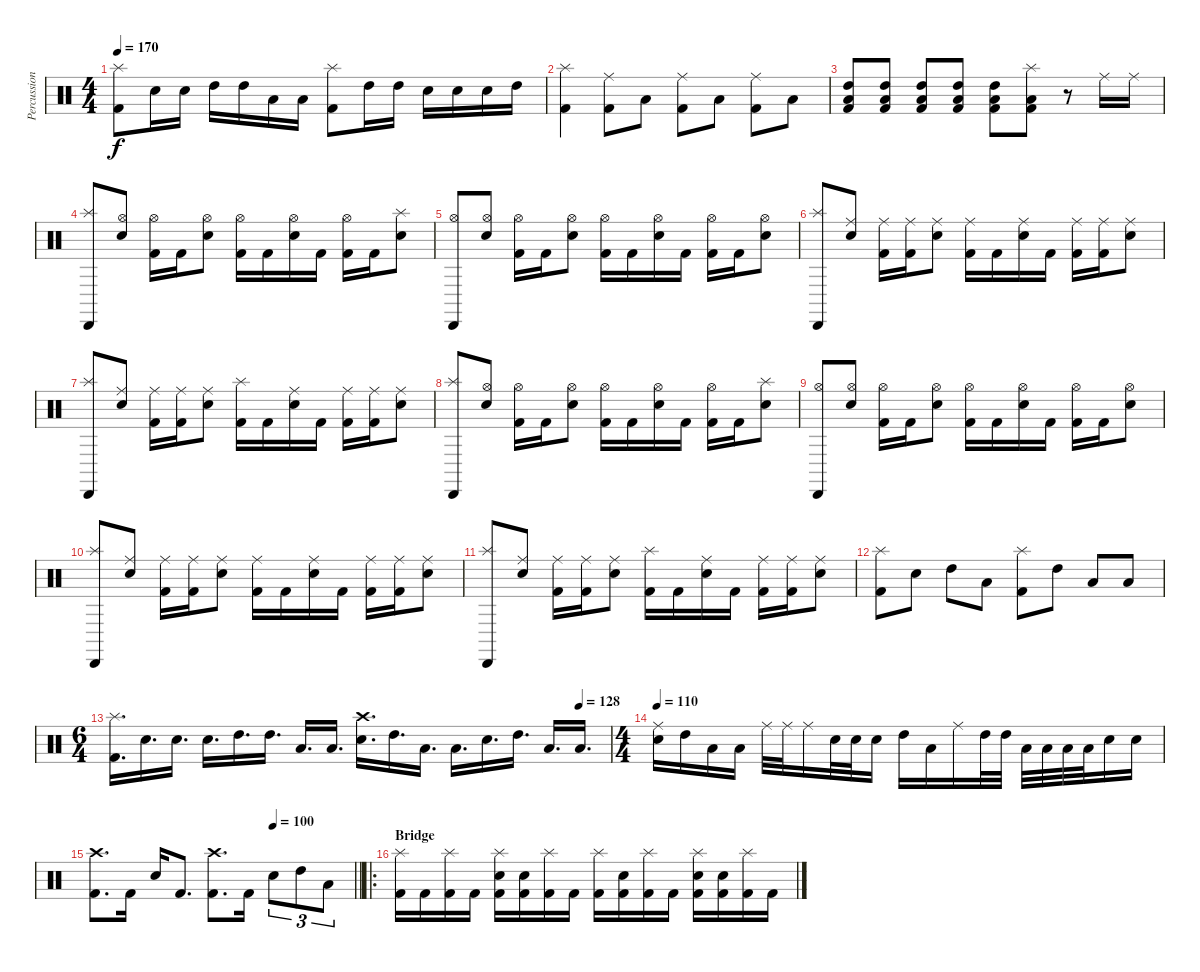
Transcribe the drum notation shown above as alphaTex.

\track ("Percussion" "Percussion") {instrument percussion}
\staff {score}
\articulation defaults
\ts (4 4)
\tempo 170
\clef neutral
\ks c
("Splash (hit)" "Kick (hit) 2").8{dy f} "Electric Snare (hit)".16 "Electric Snare (hit)".16 "High Tom (hit)".16 "High Tom (hit)".16 "Low Tom (hit)".16 "Low Floor Tom (hit)".16 ("Splash (hit)" "Kick (hit) 2").8 "High Tom (hit)".16 "High Tom (hit)".16 "Electric Snare (hit)".16 "Electric Snare (hit)".16 "Electric Snare (hit)".16 "High Tom (hit)".16 |
("Splash (hit)" "Kick (hit) 2").4 ("Ride (middle)" "Kick (hit) 2").8 "Low Floor Tom (hit)".8 ("Ride (middle)" "Kick (hit) 2").8 "Low Floor Tom (hit)".8 ("Ride (middle)" "Kick (hit) 2").8 "Low Floor Tom (hit)".8 |
("High Tom (hit)" "Low Floor Tom (hit)" "Kick (hit) 2").8 ("High Tom (hit)" "Low Floor Tom (hit)" "Kick (hit) 2").8 ("High Tom (hit)" "Low Floor Tom (hit)" "Kick (hit) 2").8 ("High Tom (hit)" "Low Floor Tom (hit)" "Kick (hit) 2").8 ("High Tom (hit)" "Low Floor Tom (hit)" "Kick (hit) 2").8 ("Splash (hit)" "Low Floor Tom (hit)" "Kick (hit) 2").8 r.8 "Ride (middle)".16 "Ride (middle)".16 |
("Splash (hit)" "Cabasa (hit)").8 ("Hi-Hat (open)" "Electric Snare (hit)").8 ("Hi-Hat (open)" "Kick (hit) 2").16 "Kick (hit) 2".16 ("Hi-Hat (open)" "Electric Snare (hit)").8 ("Hi-Hat (open)" "Kick (hit) 2").16 "Kick (hit) 2".16 ("Hi-Hat (open)" "Electric Snare (hit)").16 "Kick (hit) 2".16 ("Hi-Hat (open)" "Kick (hit) 2").16 "Kick (hit) 2".16 ("Splash (hit)" "Electric Snare (hit)").8 |
("Hi-Hat (open)" "Cabasa (hit)").8 ("Hi-Hat (open)" "Electric Snare (hit)").8 ("Hi-Hat (open)" "Kick (hit) 2").16 "Kick (hit) 2".16 ("Hi-Hat (open)" "Electric Snare (hit)").8 ("Hi-Hat (open)" "Kick (hit) 2").16 "Kick (hit) 2".16 ("Hi-Hat (open)" "Electric Snare (hit)").16 "Kick (hit) 2".16 ("Hi-Hat (open)" "Kick (hit) 2").16 "Kick (hit) 2".16 ("Hi-Hat (open)" "Electric Snare (hit)").8 |
("Splash (hit)" "Cabasa (hit)").8 ("Ride (middle)" "Electric Snare (hit)").8 ("Ride (middle)" "Kick (hit) 2").16 ("Ride (middle)" "Kick (hit) 2").16 ("Ride (middle)" "Electric Snare (hit)").8 ("Ride (middle)" "Kick (hit) 2").16 "Kick (hit) 2".16 ("Ride (middle)" "Electric Snare (hit)").16 "Kick (hit) 2".16 ("Ride (middle)" "Kick (hit) 2").16 ("Ride (middle)" "Kick (hit) 2").16 ("Ride (middle)" "Electric Snare (hit)").8 |
("Splash (hit)" "Cabasa (hit)").8 ("Ride (middle)" "Electric Snare (hit)").8 ("Ride (middle)" "Kick (hit) 2").16 ("Ride (middle)" "Kick (hit) 2").16 ("Ride (middle)" "Electric Snare (hit)").8 ("Splash (hit)" "Kick (hit) 2").16 "Kick (hit) 2".16 ("Ride (middle)" "Electric Snare (hit)").16 "Kick (hit) 2".16 ("Ride (middle)" "Kick (hit) 2").16 ("Ride (middle)" "Kick (hit) 2").16 ("Ride (middle)" "Electric Snare (hit)").8 |
("Splash (hit)" "Cabasa (hit)").8 ("Hi-Hat (open)" "Electric Snare (hit)").8 ("Hi-Hat (open)" "Kick (hit) 2").16 "Kick (hit) 2".16 ("Hi-Hat (open)" "Electric Snare (hit)").8 ("Hi-Hat (open)" "Kick (hit) 2").16 "Kick (hit) 2".16 ("Hi-Hat (open)" "Electric Snare (hit)").16 "Kick (hit) 2".16 ("Hi-Hat (open)" "Kick (hit) 2").16 "Kick (hit) 2".16 ("Splash (hit)" "Electric Snare (hit)").8 |
("Hi-Hat (open)" "Cabasa (hit)").8 ("Hi-Hat (open)" "Electric Snare (hit)").8 ("Hi-Hat (open)" "Kick (hit) 2").16 "Kick (hit) 2".16 ("Hi-Hat (open)" "Electric Snare (hit)").8 ("Hi-Hat (open)" "Kick (hit) 2").16 "Kick (hit) 2".16 ("Hi-Hat (open)" "Electric Snare (hit)").16 "Kick (hit) 2".16 ("Hi-Hat (open)" "Kick (hit) 2").16 "Kick (hit) 2".16 ("Hi-Hat (open)" "Electric Snare (hit)").8 |
("Splash (hit)" "Cabasa (hit)").8 ("Ride (middle)" "Electric Snare (hit)").8 ("Ride (middle)" "Kick (hit) 2").16 ("Ride (middle)" "Kick (hit) 2").16 ("Ride (middle)" "Electric Snare (hit)").8 ("Ride (middle)" "Kick (hit) 2").16 "Kick (hit) 2".16 ("Ride (middle)" "Electric Snare (hit)").16 "Kick (hit) 2".16 ("Ride (middle)" "Kick (hit) 2").16 ("Ride (middle)" "Kick (hit) 2").16 ("Ride (middle)" "Electric Snare (hit)").8 |
("Splash (hit)" "Cabasa (hit)").8 ("Ride (middle)" "Electric Snare (hit)").8 ("Ride (middle)" "Kick (hit) 2").16 ("Ride (middle)" "Kick (hit) 2").16 ("Ride (middle)" "Electric Snare (hit)").8 ("Splash (hit)" "Kick (hit) 2").16 "Kick (hit) 2".16 ("Ride (middle)" "Electric Snare (hit)").16 "Kick (hit) 2".16 ("Ride (middle)" "Kick (hit) 2").16 ("Ride (middle)" "Kick (hit) 2").16 ("Ride (middle)" "Electric Snare (hit)").8 |
("Splash (hit)" "Kick (hit) 2").8 "Electric Snare (hit)".8 "High Tom (hit)".8 "Low Tom (hit)".8 ("Splash (hit)" "Kick (hit) 2").8 "High Tom (hit)".8 "Low Tom (hit)".8 "Low Floor Tom (hit)".8 |
\ts (6 4)
\tempo (128 0.9375)
("Splash (hit)" "Kick (hit) 2").16{d} "Electric Snare (hit)".16{d} "Electric Snare (hit)".16{d} "Electric Snare (hit)".16{d} "High Tom (hit)".16{d} "High Tom (hit)".16{d} "Low Tom (hit)".16{d} "Low Tom (hit)".16{d} ("Crash high (hit)" "Electric Snare (hit)").16{d} "High Tom (hit)".16{d} "Low Tom (hit)".16{d} "Low Floor Tom (hit)".16{d} "Electric Snare (hit)".16{d} "High Tom (hit)".16{d} "Low Tom (hit)".16{d} "Low Floor Tom (hit)".16{d} |
\ts (4 4)
\tempo 110
("Ride (middle)" "Electric Snare (hit)").16 "High Tom (hit)".16 "Low Tom (hit)".16 "Low Floor Tom (hit)".16 "Ride (middle)".32 "Ride (middle)".32 "Ride (middle)".16 "Electric Snare (hit)".32 "Electric Snare (hit)".32 "Electric Snare (hit)".16 "High Tom (hit)".16 "Low Floor Tom (hit)".16 "Ride (middle)".16 "High Tom (hit)".32 "High Tom (hit)".32 "Low Tom (hit)".32 "Low Tom (hit)".32 "Low Floor Tom (hit)".32 "Low Floor Tom (hit)".32 "Electric Snare (hit)".16 "Electric Snare (hit)".16 |
\tempo (100 0.6875)
\barLineRight lightlight
("Crash high (hit)" "Kick (hit) 2").8{d} "Kick (hit) 2".16 "Electric Snare (hit)".16 "Kick (hit) 2".8{d} ("Crash high (hit)" "Kick (hit) 2").8{d} "Kick (hit) 2".16 "Electric Snare (hit)".8{tu (3 2)} "High Tom (hit)".8{tu (3 2)} "Low Tom (hit)".8{tu (3 2)} |
\ro
\section ("" "Bridge")
("Splash (hit)" "Kick (hit) 2").16 "Kick (hit) 2".16 ("Splash (hit)" "Kick (hit) 2").16 "Kick (hit) 2".16 ("Splash (hit)" "Electric Snare (hit)" "Kick (hit) 2").16 ("Electric Snare (hit)" "Kick (hit) 2").16 ("Splash (hit)" "Kick (hit) 2").16 "Kick (hit) 2".16 ("Splash (hit)" "Kick (hit) 2").16 ("Electric Snare (hit)" "Kick (hit) 2").16 ("Splash (hit)" "Kick (hit) 2").16 "Kick (hit) 2".16 ("Splash (hit)" "Electric Snare (hit)" "Kick (hit) 2").16 ("Electric Snare (hit)" "Kick (hit) 2").16 ("Splash (hit)" "Kick (hit) 2").16 "Kick (hit) 2".16
